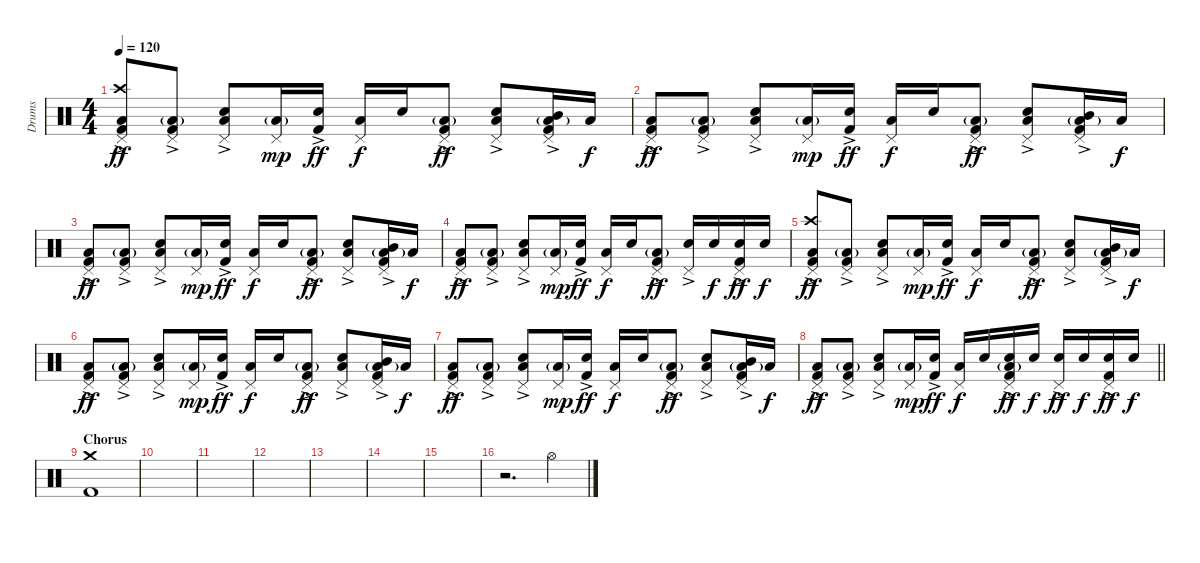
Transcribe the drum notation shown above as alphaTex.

\track ("Drums" "Drums") {instrument percussion}
\staff {score}
\articulation defaults
\ts (4 4)
\tempo 120
\clef neutral
\ks c
("Pedal Hi-Hat (hit)" "Crash high (hit)" "Low Floor Tom (hit)" "Kick (hit) 2"{ac}).8{dy ff} ("Pedal Hi-Hat (hit)" "Low Floor Tom (hit)"{g} "Kick (hit) 2"{ac}).8 ("Pedal Hi-Hat (hit)" "Snare (hit) 2"{ac} "Low Floor Tom (hit)").8 ("Pedal Hi-Hat (hit)" "Low Floor Tom (hit)"{g}).16{dy mp} ("Snare (hit) 2" "Kick (hit) 2"{ac}).16{dy ff} ("Pedal Hi-Hat (hit)" "Low Floor Tom (hit)").16{dy f} "Snare (hit) 2".16 ("Pedal Hi-Hat (hit)" "Low Floor Tom (hit)"{g} "Kick (hit) 2"{ac}).8{dy ff} ("Pedal Hi-Hat (hit)" "Snare (hit) 2"{ac} "Low Floor Tom (hit)").8 ("Pedal Hi-Hat (hit)" "Mid Tom (hit)" "Low Floor Tom (hit)"{g} "Kick (hit) 2"{ac}).16 "Low Tom (hit)".16{dy f} |
("Pedal Hi-Hat (hit)" "Low Floor Tom (hit)" "Kick (hit) 2"{ac}).8{dy ff} ("Pedal Hi-Hat (hit)" "Low Floor Tom (hit)"{g} "Kick (hit) 2"{ac}).8 ("Pedal Hi-Hat (hit)" "Snare (hit) 2"{ac} "Low Floor Tom (hit)").8 ("Pedal Hi-Hat (hit)" "Low Floor Tom (hit)"{g}).16{dy mp} ("Snare (hit) 2" "Kick (hit) 2"{ac}).16{dy ff} ("Pedal Hi-Hat (hit)" "Low Floor Tom (hit)").16{dy f} "Snare (hit) 2".16 ("Pedal Hi-Hat (hit)" "Low Floor Tom (hit)"{g} "Kick (hit) 2"{ac}).8{dy ff} ("Pedal Hi-Hat (hit)" "Snare (hit) 2"{ac} "Low Floor Tom (hit)").8 ("Pedal Hi-Hat (hit)" "Mid Tom (hit)" "Low Floor Tom (hit)"{g} "Kick (hit) 2"{ac}).16 "Low Tom (hit)".16{dy f} |
("Pedal Hi-Hat (hit)" "Low Floor Tom (hit)" "Kick (hit) 2"{ac}).8{dy ff} ("Pedal Hi-Hat (hit)" "Low Floor Tom (hit)"{g} "Kick (hit) 2"{ac}).8 ("Pedal Hi-Hat (hit)" "Snare (hit) 2"{ac} "Low Floor Tom (hit)").8 ("Pedal Hi-Hat (hit)" "Low Floor Tom (hit)"{g}).16{dy mp} ("Snare (hit) 2" "Kick (hit) 2"{ac}).16{dy ff} ("Pedal Hi-Hat (hit)" "Low Floor Tom (hit)").16{dy f} "Snare (hit) 2".16 ("Pedal Hi-Hat (hit)" "Low Floor Tom (hit)"{g} "Kick (hit) 2"{ac}).8{dy ff} ("Pedal Hi-Hat (hit)" "Snare (hit) 2"{ac} "Low Floor Tom (hit)").8 ("Pedal Hi-Hat (hit)" "Mid Tom (hit)" "Low Floor Tom (hit)"{g} "Kick (hit) 2"{ac}).16 "Low Tom (hit)".16{dy f} |
("Pedal Hi-Hat (hit)" "Low Floor Tom (hit)" "Kick (hit) 2"{ac}).8{dy ff} ("Pedal Hi-Hat (hit)" "Low Floor Tom (hit)"{g} "Kick (hit) 2"{ac}).8 ("Pedal Hi-Hat (hit)" "Snare (hit) 2"{ac} "Low Floor Tom (hit)").8 ("Pedal Hi-Hat (hit)" "Low Floor Tom (hit)"{g}).16{dy mp} ("Snare (hit) 2" "Kick (hit) 2"{ac}).16{dy ff} ("Pedal Hi-Hat (hit)" "Low Floor Tom (hit)").16{dy f} "Snare (hit) 2".16 ("Pedal Hi-Hat (hit)" "Low Floor Tom (hit)"{g} "Kick (hit) 2"{ac}).8{dy ff} ("Pedal Hi-Hat (hit)" "Snare (hit) 2"{ac}).16 "Snare (hit) 2".16{dy f} ("Pedal Hi-Hat (hit)" "Snare (hit) 2" "Kick (hit) 2"{ac}).16{dy ff} "Snare (hit) 2".16{dy f} |
("Pedal Hi-Hat (hit)" "Crash high (hit)" "Low Floor Tom (hit)" "Kick (hit) 2"{ac}).8{dy ff} ("Pedal Hi-Hat (hit)" "Low Floor Tom (hit)"{g} "Kick (hit) 2"{ac}).8 ("Pedal Hi-Hat (hit)" "Snare (hit) 2"{ac} "Low Floor Tom (hit)").8 ("Pedal Hi-Hat (hit)" "Low Floor Tom (hit)"{g}).16{dy mp} ("Snare (hit) 2" "Kick (hit) 2"{ac}).16{dy ff} ("Pedal Hi-Hat (hit)" "Low Floor Tom (hit)").16{dy f} "Snare (hit) 2".16 ("Pedal Hi-Hat (hit)" "Low Floor Tom (hit)"{g} "Kick (hit) 2"{ac}).8{dy ff} ("Pedal Hi-Hat (hit)" "Snare (hit) 2"{ac} "Low Floor Tom (hit)").8 ("Pedal Hi-Hat (hit)" "Mid Tom (hit)" "Low Floor Tom (hit)"{g} "Kick (hit) 2"{ac}).16 "Low Tom (hit)".16{dy f} |
("Pedal Hi-Hat (hit)" "Low Floor Tom (hit)" "Kick (hit) 2"{ac}).8{dy ff} ("Pedal Hi-Hat (hit)" "Low Floor Tom (hit)"{g} "Kick (hit) 2"{ac}).8 ("Pedal Hi-Hat (hit)" "Snare (hit) 2"{ac} "Low Floor Tom (hit)").8 ("Pedal Hi-Hat (hit)" "Low Floor Tom (hit)"{g}).16{dy mp} ("Snare (hit) 2" "Kick (hit) 2"{ac}).16{dy ff} ("Pedal Hi-Hat (hit)" "Low Floor Tom (hit)").16{dy f} "Snare (hit) 2".16 ("Pedal Hi-Hat (hit)" "Low Floor Tom (hit)"{g} "Kick (hit) 2"{ac}).8{dy ff} ("Pedal Hi-Hat (hit)" "Snare (hit) 2"{ac} "Low Floor Tom (hit)").8 ("Pedal Hi-Hat (hit)" "Mid Tom (hit)" "Low Floor Tom (hit)"{g} "Kick (hit) 2"{ac}).16 "Low Tom (hit)".16{dy f} |
("Pedal Hi-Hat (hit)" "Low Floor Tom (hit)" "Kick (hit) 2"{ac}).8{dy ff} ("Pedal Hi-Hat (hit)" "Low Floor Tom (hit)"{g} "Kick (hit) 2"{ac}).8 ("Pedal Hi-Hat (hit)" "Snare (hit) 2"{ac} "Low Floor Tom (hit)").8 ("Pedal Hi-Hat (hit)" "Low Floor Tom (hit)"{g}).16{dy mp} ("Snare (hit) 2" "Kick (hit) 2"{ac}).16{dy ff} ("Pedal Hi-Hat (hit)" "Low Floor Tom (hit)").16{dy f} "Snare (hit) 2".16 ("Pedal Hi-Hat (hit)" "Low Floor Tom (hit)"{g} "Kick (hit) 2"{ac}).8{dy ff} ("Pedal Hi-Hat (hit)" "Snare (hit) 2"{ac} "Low Floor Tom (hit)").8 ("Pedal Hi-Hat (hit)" "Mid Tom (hit)" "Low Floor Tom (hit)"{g} "Kick (hit) 2"{ac}).16 "Low Tom (hit)".16{dy f} |
\barLineRight lightlight
("Pedal Hi-Hat (hit)" "Low Floor Tom (hit)" "Kick (hit) 2"{ac}).8{dy ff} ("Pedal Hi-Hat (hit)" "Low Floor Tom (hit)"{g} "Kick (hit) 2"{ac}).8 ("Pedal Hi-Hat (hit)" "Snare (hit) 2"{ac} "Low Floor Tom (hit)").8 ("Pedal Hi-Hat (hit)" "Low Floor Tom (hit)"{g}).16{dy mp} ("Snare (hit) 2" "Kick (hit) 2"{ac}).16{dy ff} ("Pedal Hi-Hat (hit)" "Low Floor Tom (hit)").16{dy f} "Snare (hit) 2".16 ("Pedal Hi-Hat (hit)" "Snare (hit) 2" "Low Floor Tom (hit)"{g} "Kick (hit) 2"{ac}).16{dy ff} "Snare (hit) 2".16{dy f} ("Pedal Hi-Hat (hit)" "Snare (hit) 2"{ac}).16{dy ff} "Snare (hit) 2".16{dy f} ("Pedal Hi-Hat (hit)" "Snare (hit) 2" "Kick (hit) 2"{ac}).16{dy ff} "Snare (hit) 2".16{dy f} |
\section ("" "Chorus")
("Crash medium (hit)" "Kick (hit) 2").1 |
|
|
|
|
|
|
r.2{d} "Hi-Hat (open)".4
